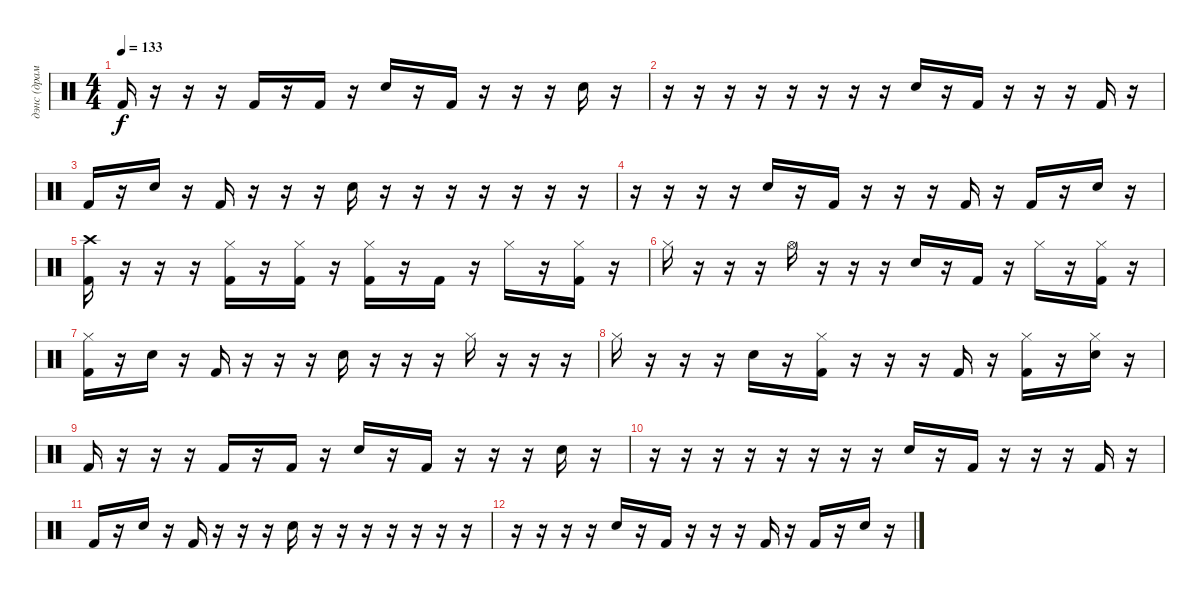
\track ("дэнс (драммы)" "дэнс (драм") {instrument percussion}
\staff {score}
\articulation defaults
\ts (4 4)
\tempo 133
\clef neutral
\ks c "Kick (hit) 2".16{dy f}
r.16 r.16 r.16 "Kick (hit) 2".16 r.16 "Kick (hit) 2".16 r.16 "Snare (hit) 2".16 r.16 "Kick (hit) 2".16 r.16 r.16 r.16 "Snare (hit) 2".16 r.16 |
r.16 r.16 r.16 r.16 r.16 r.16 r.16 r.16 "Snare (hit) 2".16 r.16 "Kick (hit) 2".16 r.16 r.16 r.16 "Kick (hit) 2".16 r.16 |
"Kick (hit) 2".16 r.16 "Snare (hit) 2".16 r.16 "Kick (hit) 2".16 r.16 r.16 r.16 "Snare (hit) 2".16 r.16 r.16 r.16 r.16 r.16 r.16 r.16 |
r.16 r.16 r.16 r.16 "Snare (hit) 2".16 r.16 "Kick (hit) 2".16 r.16 r.16 r.16 "Kick (hit) 2".16 r.16 "Kick (hit) 2".16 r.16 "Snare (hit) 2".16 r.16 |
("Kick (hit) 2" "Crash high (hit)").16 r.16 r.16 r.16 ("Kick (hit) 2" "Hi-Hat (closed)").16 r.16 ("Kick (hit) 2" "Hi-Hat (closed)").16 r.16 ("Kick (hit) 2" "Hi-Hat (closed)").16 r.16 "Kick (hit) 2".16 r.16 "Hi-Hat (closed)".16 r.16 ("Kick (hit) 2" "Hi-Hat (closed)").16 r.16 |
"Hi-Hat (closed)".16 r.16 r.16 r.16 "Hi-Hat (open)".16 r.16 r.16 r.16 "Snare (hit) 2".16 r.16 "Kick (hit) 2".16 r.16 "Hi-Hat (closed)".16 r.16 ("Kick (hit) 2" "Hi-Hat (closed)").16 r.16 |
("Kick (hit) 2" "Hi-Hat (closed)").16 r.16 "Snare (hit) 2".16 r.16 "Kick (hit) 2".16 r.16 r.16 r.16 "Snare (hit) 2".16 r.16 r.16 r.16 "Hi-Hat (closed)".16 r.16 r.16 r.16 |
"Hi-Hat (closed)".16 r.16 r.16 r.16 "Snare (hit) 2".16 r.16 ("Kick (hit) 2" "Hi-Hat (closed)").16 r.16 r.16 r.16 "Kick (hit) 2".16 r.16 ("Kick (hit) 2" "Hi-Hat (closed)").16 r.16 ("Snare (hit) 2" "Hi-Hat (closed)").16 r.16 |
"Kick (hit) 2".16 r.16 r.16 r.16 "Kick (hit) 2".16 r.16 "Kick (hit) 2".16 r.16 "Snare (hit) 2".16 r.16 "Kick (hit) 2".16 r.16 r.16 r.16 "Snare (hit) 2".16 r.16 |
r.16 r.16 r.16 r.16 r.16 r.16 r.16 r.16 "Snare (hit) 2".16 r.16 "Kick (hit) 2".16 r.16 r.16 r.16 "Kick (hit) 2".16 r.16 |
"Kick (hit) 2".16 r.16 "Snare (hit) 2".16 r.16 "Kick (hit) 2".16 r.16 r.16 r.16 "Snare (hit) 2".16 r.16 r.16 r.16 r.16 r.16 r.16 r.16 |
r.16 r.16 r.16 r.16 "Snare (hit) 2".16 r.16 "Kick (hit) 2".16 r.16 r.16 r.16 "Kick (hit) 2".16 r.16 "Kick (hit) 2".16 r.16 "Snare (hit) 2".16 r.16
